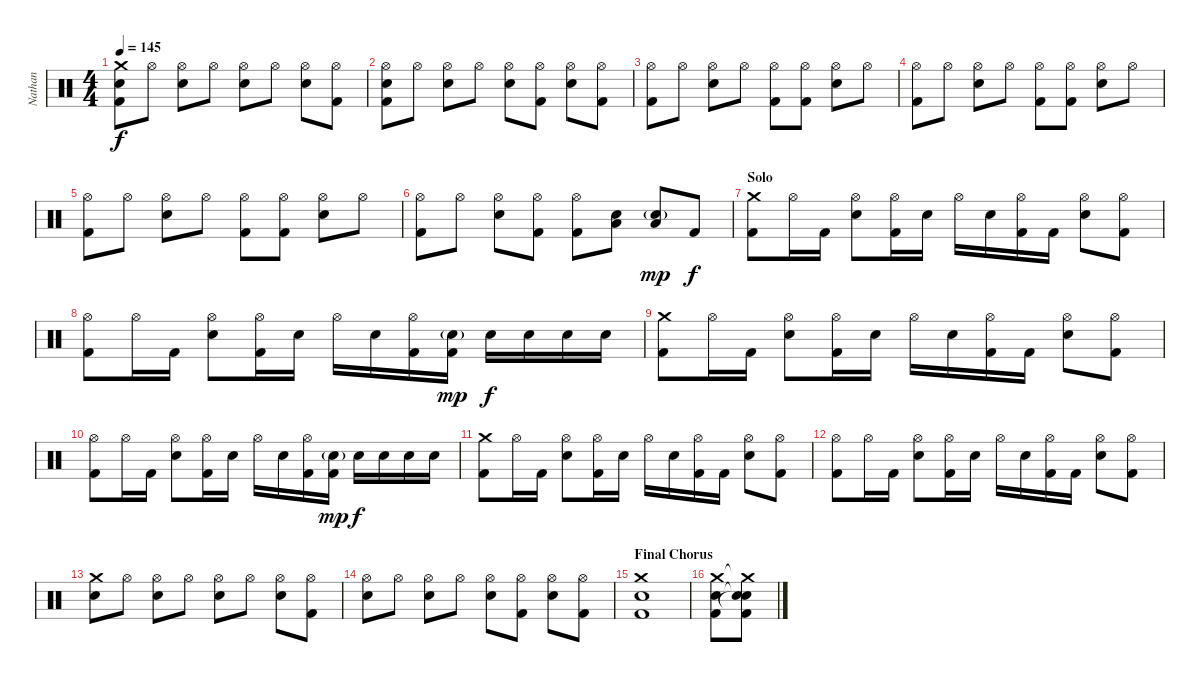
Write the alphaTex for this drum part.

\track ("Nathan" "Nathan") {instrument percussion}
\staff {score}
\articulation defaults
\ts (4 4)
\tempo 145
\clef neutral
\ks c
("Crash medium (hit)" "Electric Snare (hit)" "Kick (hit) 2").8{dy f} "Hi-Hat (open)".8 ("Hi-Hat (open)" "Electric Snare (hit)").8 "Hi-Hat (open)".8 ("Hi-Hat (open)" "Electric Snare (hit)").8 "Hi-Hat (open)".8 ("Hi-Hat (open)" "Electric Snare (hit)").8 ("Hi-Hat (open)" "Kick (hit) 2").8 |
("Hi-Hat (open)" "Electric Snare (hit)" "Kick (hit) 2").8 "Hi-Hat (open)".8 ("Hi-Hat (open)" "Electric Snare (hit)").8 "Hi-Hat (open)".8 ("Hi-Hat (open)" "Electric Snare (hit)").8 ("Hi-Hat (open)" "Kick (hit) 2").8 ("Hi-Hat (open)" "Electric Snare (hit)").8 ("Hi-Hat (open)" "Kick (hit) 2").8 |
("Hi-Hat (open)" "Kick (hit) 2").8 "Hi-Hat (open)".8 ("Hi-Hat (open)" "Electric Snare (hit)").8 "Hi-Hat (open)".8 ("Hi-Hat (open)" "Kick (hit) 2").8 ("Hi-Hat (open)" "Kick (hit) 2").8 ("Hi-Hat (open)" "Electric Snare (hit)").8 "Hi-Hat (open)".8 |
("Hi-Hat (open)" "Kick (hit) 2").8 "Hi-Hat (open)".8 ("Hi-Hat (open)" "Electric Snare (hit)").8 "Hi-Hat (open)".8 ("Hi-Hat (open)" "Kick (hit) 2").8 ("Hi-Hat (open)" "Kick (hit) 2").8 ("Hi-Hat (open)" "Electric Snare (hit)").8 "Hi-Hat (open)".8 |
("Hi-Hat (open)" "Kick (hit) 2").8 "Hi-Hat (open)".8 ("Hi-Hat (open)" "Electric Snare (hit)").8 "Hi-Hat (open)".8 ("Hi-Hat (open)" "Kick (hit) 2").8 ("Hi-Hat (open)" "Kick (hit) 2").8 ("Hi-Hat (open)" "Electric Snare (hit)").8 "Hi-Hat (open)".8 |
("Hi-Hat (open)" "Kick (hit) 2").8 "Hi-Hat (open)".8 ("Hi-Hat (open)" "Electric Snare (hit)").8 ("Hi-Hat (open)" "Kick (hit) 2").8 ("Hi-Hat (open)" "Kick (hit) 2").8 ("Electric Snare (hit)" "Low Floor Tom (hit)").8 ("Electric Snare (hit)"{g} "Low Floor Tom (hit)").8{dy mp} "Kick (hit) 2".8{dy f} |
\section ("" "Solo")
("Crash medium (hit)" "Kick (hit) 2").8 "Hi-Hat (open)".16 "Kick (hit) 2".16 ("Hi-Hat (open)" "Electric Snare (hit)").8 ("Hi-Hat (open)" "Kick (hit) 2").16 "Electric Snare (hit)".16 "Hi-Hat (open)".16 "Electric Snare (hit)".16 ("Hi-Hat (open)" "Kick (hit) 2").16 "Kick (hit) 2".16 ("Hi-Hat (open)" "Electric Snare (hit)").8 ("Hi-Hat (open)" "Kick (hit) 2").8 |
("Hi-Hat (open)" "Kick (hit) 2").8 "Hi-Hat (open)".16 "Kick (hit) 2".16 ("Hi-Hat (open)" "Electric Snare (hit)").8 ("Hi-Hat (open)" "Kick (hit) 2").16 "Electric Snare (hit)".16 "Hi-Hat (open)".16 "Electric Snare (hit)".16 ("Hi-Hat (open)" "Kick (hit) 2").16 ("Electric Snare (hit)"{g} "Kick (hit) 2").16{dy mp} "Electric Snare (hit)".16{dy f} "Electric Snare (hit)".16 "Electric Snare (hit)".16 "Electric Snare (hit)".16 |
("Crash medium (hit)" "Kick (hit) 2").8 "Hi-Hat (open)".16 "Kick (hit) 2".16 ("Hi-Hat (open)" "Electric Snare (hit)").8 ("Hi-Hat (open)" "Kick (hit) 2").16 "Electric Snare (hit)".16 "Hi-Hat (open)".16 "Electric Snare (hit)".16 ("Hi-Hat (open)" "Kick (hit) 2").16 "Kick (hit) 2".16 ("Hi-Hat (open)" "Electric Snare (hit)").8 ("Hi-Hat (open)" "Kick (hit) 2").8 |
("Hi-Hat (open)" "Kick (hit) 2").8 "Hi-Hat (open)".16 "Kick (hit) 2".16 ("Hi-Hat (open)" "Electric Snare (hit)").8 ("Hi-Hat (open)" "Kick (hit) 2").16 "Electric Snare (hit)".16 "Hi-Hat (open)".16 "Electric Snare (hit)".16 ("Hi-Hat (open)" "Kick (hit) 2").16 ("Electric Snare (hit)"{g} "Kick (hit) 2").16{dy mp} "Electric Snare (hit)".16{dy f} "Electric Snare (hit)".16 "Electric Snare (hit)".16 "Electric Snare (hit)".16 |
("Crash medium (hit)" "Kick (hit) 2").8 "Hi-Hat (open)".16 "Kick (hit) 2".16 ("Hi-Hat (open)" "Electric Snare (hit)").8 ("Hi-Hat (open)" "Kick (hit) 2").16 "Electric Snare (hit)".16 "Hi-Hat (open)".16 "Electric Snare (hit)".16 ("Hi-Hat (open)" "Kick (hit) 2").16 "Kick (hit) 2".16 ("Hi-Hat (open)" "Electric Snare (hit)").8 ("Hi-Hat (open)" "Kick (hit) 2").8 |
("Hi-Hat (open)" "Kick (hit) 2").8 "Hi-Hat (open)".16 "Kick (hit) 2".16 ("Hi-Hat (open)" "Electric Snare (hit)").8 ("Hi-Hat (open)" "Kick (hit) 2").16 "Electric Snare (hit)".16 "Hi-Hat (open)".16 "Electric Snare (hit)".16 ("Hi-Hat (open)" "Kick (hit) 2").16 "Kick (hit) 2".16 ("Hi-Hat (open)" "Electric Snare (hit)").8 ("Hi-Hat (open)" "Kick (hit) 2").8 |
("Crash medium (hit)" "Electric Snare (hit)").8 "Hi-Hat (open)".8 ("Hi-Hat (open)" "Electric Snare (hit)").8 "Hi-Hat (open)".8 ("Hi-Hat (open)" "Electric Snare (hit)").8 "Hi-Hat (open)".8 ("Hi-Hat (open)" "Electric Snare (hit)").8 ("Hi-Hat (open)" "Kick (hit) 2").8 |
("Hi-Hat (open)" "Electric Snare (hit)").8 "Hi-Hat (open)".8 ("Hi-Hat (open)" "Electric Snare (hit)").8 "Hi-Hat (open)".8 ("Hi-Hat (open)" "Electric Snare (hit)").8 ("Hi-Hat (open)" "Kick (hit) 2").8 ("Hi-Hat (open)" "Electric Snare (hit)").8 ("Hi-Hat (open)" "Kick (hit) 2").8 |
\section ("" "Final Chorus")
("Crash medium (hit)" "Electric Snare (hit)" "Kick (hit) 2").1 |
("Crash medium (hit)" "Electric Snare (hit)" "Kick (hit) 2").8{volume 3} ("Crash medium (hit)"{t} "Snare (hit)"{t} "Electric Snare (hit)"{t} "Kick (hit) 2").8
